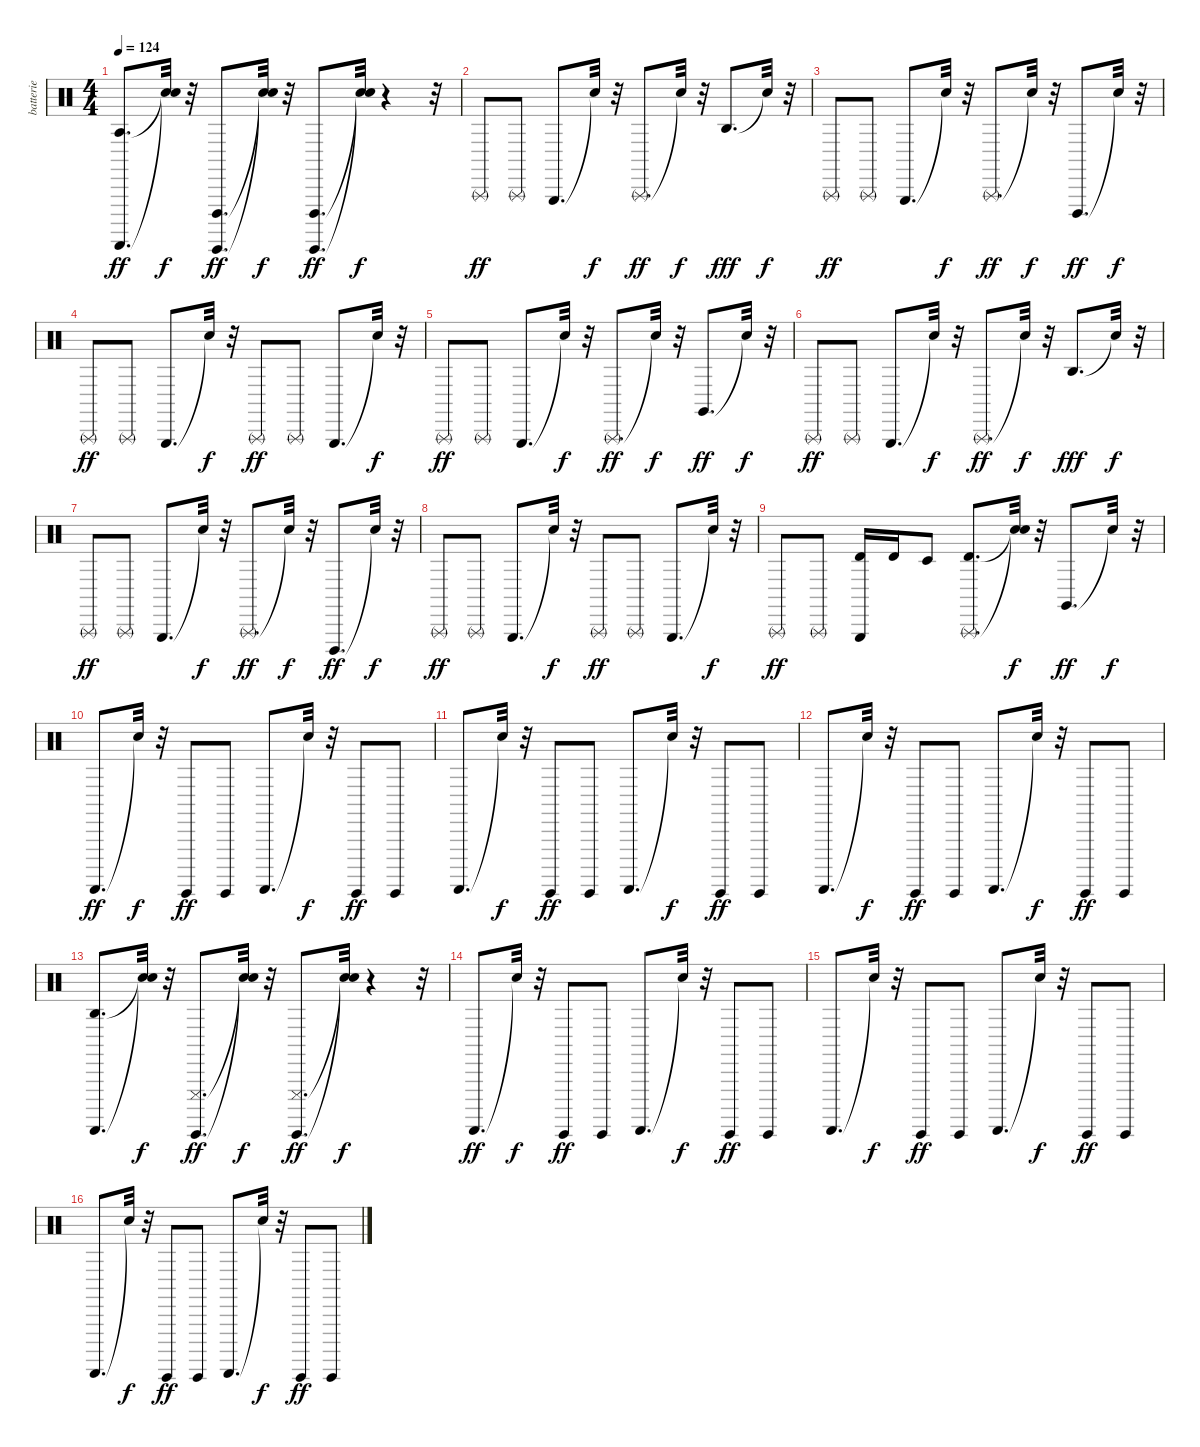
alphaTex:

\track ("batterie" "batterie") {instrument percussion}
\staff {score}
\articulation defaults
\ts (4 4)
\tempo 124
\clef neutral
\ks c
("Agogo tow (hit)" "Guiro (scrap-return)").8{d dy ff} ("Snare (hit)"{t} "Snare (hit)"{t}).32{dy f} r.32 ("Guiro (hit)" "Cuica (open)").8{d dy ff} ("Snare (hit)"{t} "Snare (hit)"{t}).32{dy f} r.32 ("Guiro (hit)" "Cuica (open)").8{d dy ff} ("Snare (hit)"{t} "Snare (hit)"{t}).32{dy f} r.4 r.32 |
"Triangle (rnute)".8{dy ff} "Triangle (rnute)".8 "Triangle (hit)".8{d} "Snare (hit)"{t}.32{dy f} r.32 "Triangle (rnute)".8{d dy ff} "Snare (hit)"{t}.32{dy f} r.32 "Agogo high (hit)".8{d dy fff} "Snare (hit)"{t}.32{dy f} r.32 |
"Triangle (rnute)".8{dy ff} "Triangle (rnute)".8 "Triangle (hit)".8{d} "Snare (hit)"{t}.32{dy f} r.32 "Triangle (rnute)".8{d dy ff} "Snare (hit)"{t}.32{dy f} r.32 "Cuica (open)".8{d dy ff} "Snare (hit)"{t}.32{dy f} r.32 |
"Triangle (rnute)".8{dy ff} "Triangle (rnute)".8 "Triangle (hit)".8{d} "Snare (hit)"{t}.32{dy f} r.32 "Triangle (rnute)".8{dy ff} "Triangle (rnute)".8 "Triangle (hit)".8{d} "Snare (hit)"{t}.32{dy f} r.32 |
"Triangle (rnute)".8{dy ff} "Triangle (rnute)".8 "Triangle (hit)".8{d} "Snare (hit)"{t}.32{dy f} r.32 "Triangle (rnute)".8{d dy ff} "Snare (hit)"{t}.32{dy f} r.32 "Claves (hit)".8{d dy ff} "Snare (hit)"{t}.32{dy f} r.32 |
"Triangle (rnute)".8{dy ff} "Triangle (rnute)".8 "Triangle (hit)".8{d} "Snare (hit)"{t}.32{dy f} r.32 "Triangle (rnute)".8{d dy ff} "Snare (hit)"{t}.32{dy f} r.32 "Agogo high (hit)".8{d dy fff} "Snare (hit)"{t}.32{dy f} r.32 |
"Triangle (rnute)".8{dy ff} "Triangle (rnute)".8 "Triangle (hit)".8{d} "Snare (hit)"{t}.32{dy f} r.32 "Triangle (rnute)".8{d dy ff} "Snare (hit)"{t}.32{dy f} r.32 "Cuica (open)".8{d dy ff} "Snare (hit)"{t}.32{dy f} r.32 |
"Triangle (rnute)".8{dy ff} "Triangle (rnute)".8 "Triangle (hit)".8{d} "Snare (hit)"{t}.32{dy f} r.32 "Triangle (rnute)".8{dy ff} "Triangle (rnute)".8 "Triangle (hit)".8{d} "Snare (hit)"{t}.32{dy f} r.32 |
"Triangle (rnute)".8{dy ff} "Triangle (rnute)".8 ("Timbale high (hit)" "Triangle (hit)").16 "Timbale high (hit)".16 "Timbale low (hit)".8 ("Timbale high (hit)" "Triangle (rnute)").8{d} ("Snare (hit)"{t} "Snare (hit)"{t}).32{dy f} r.32 "Claves (hit)".8{d dy ff} "Snare (hit)"{t}.32{dy f} r.32 |
"Guiro (scrap-return)".8{d dy ff} "Snare (hit)"{t}.32{dy f} r.32 "Guiro (hit)".8{dy ff} "Guiro (hit)".8 "Guiro (scrap-return)".8{d} "Snare (hit)"{t}.32{dy f} r.32 "Guiro (hit)".8{dy ff} "Guiro (hit)".8 |
"Guiro (scrap-return)".8{d} "Snare (hit)"{t}.32{dy f} r.32 "Guiro (hit)".8{dy ff} "Guiro (hit)".8 "Guiro (scrap-return)".8{d} "Snare (hit)"{t}.32{dy f} r.32 "Guiro (hit)".8{dy ff} "Guiro (hit)".8 |
"Guiro (scrap-return)".8{d} "Snare (hit)"{t}.32{dy f} r.32 "Guiro (hit)".8{dy ff} "Guiro (hit)".8 "Guiro (scrap-return)".8{d} "Snare (hit)"{t}.32{dy f} r.32 "Guiro (hit)".8{dy ff} "Guiro (hit)".8 |
("Agogo high (hit)" "Guiro (scrap-return)").8{d} ("Snare (hit)"{t} "Snare (hit)"{t}).32{dy f} r.32 ("Guiro (hit)" "Cuica (mute)").8{d dy ff} ("Snare (hit)"{t} "Snare (hit)"{t}).32{dy f} r.32 ("Guiro (hit)" "Cuica (mute)").8{d dy ff} ("Snare (hit)"{t} "Snare (hit)"{t}).32{dy f} r.4 r.32 |
"Guiro (scrap-return)".8{d dy ff} "Snare (hit)"{t}.32{dy f} r.32 "Guiro (hit)".8{dy ff} "Guiro (hit)".8 "Guiro (scrap-return)".8{d} "Snare (hit)"{t}.32{dy f} r.32 "Guiro (hit)".8{dy ff} "Guiro (hit)".8 |
"Guiro (scrap-return)".8{d} "Snare (hit)"{t}.32{dy f} r.32 "Guiro (hit)".8{dy ff} "Guiro (hit)".8 "Guiro (scrap-return)".8{d} "Snare (hit)"{t}.32{dy f} r.32 "Guiro (hit)".8{dy ff} "Guiro (hit)".8 |
"Guiro (scrap-return)".8{d} "Snare (hit)"{t}.32{dy f} r.32 "Guiro (hit)".8{dy ff} "Guiro (hit)".8 "Guiro (scrap-return)".8{d} "Snare (hit)"{t}.32{dy f} r.32 "Guiro (hit)".8{dy ff} "Guiro (hit)".8
